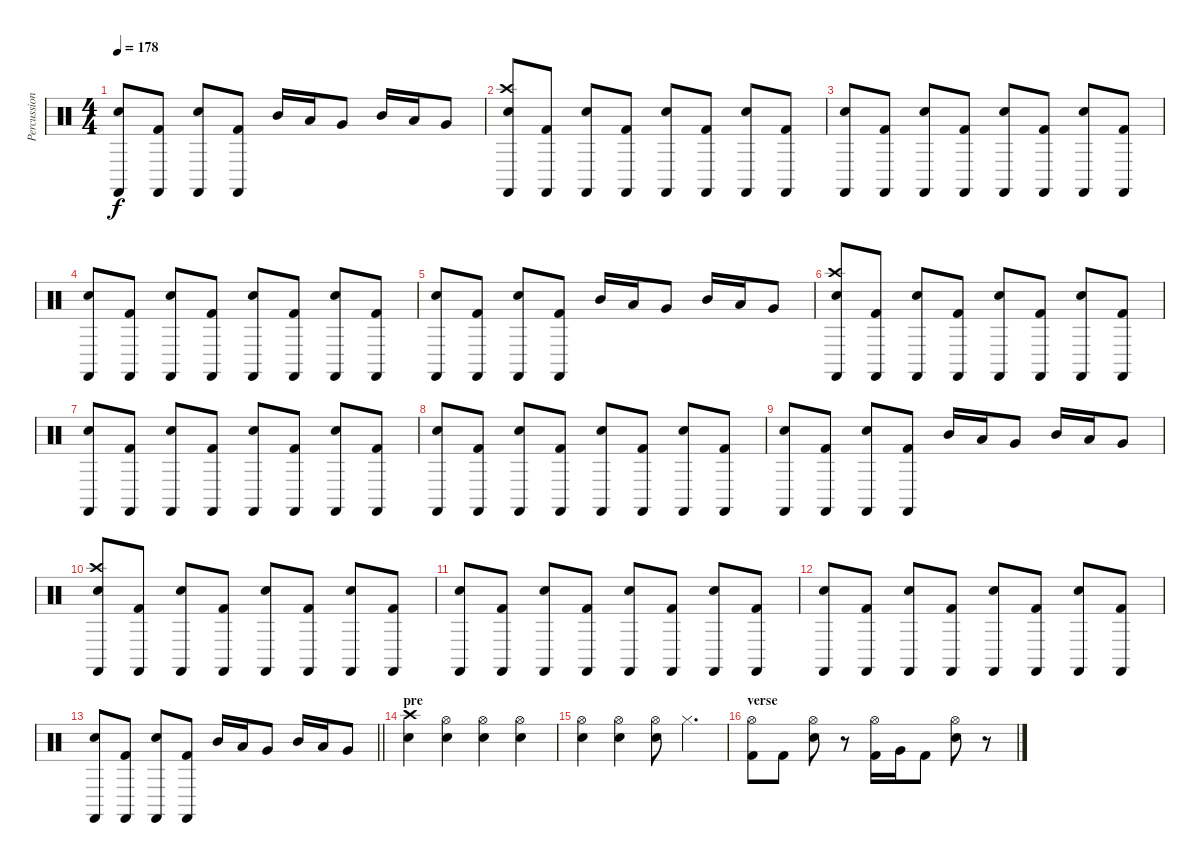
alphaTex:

\track ("Percussion" "Percussion") {instrument percussion}
\staff {score}
\articulation defaults
\ts (4 4)
\tempo 178
\clef neutral
\ks c
("Castanets (hit)" "Electric Snare (hit)").8{dy f} ("Castanets (hit)" "Kick (hit) 2").8 ("Castanets (hit)" "Electric Snare (hit)").8 ("Castanets (hit)" "Kick (hit) 2").8 "Mid Tom (hit)".16 "Low Tom (hit)".16 "Very Low Tom (hit)".8 "Mid Tom (hit)".16 "Low Tom (hit)".16 "Very Low Tom (hit)".8 |
("Crash high (hit)" "Castanets (hit)" "Electric Snare (hit)").8 ("Castanets (hit)" "Kick (hit) 2").8 ("Castanets (hit)" "Electric Snare (hit)").8 ("Castanets (hit)" "Kick (hit) 2").8 ("Castanets (hit)" "Electric Snare (hit)").8 ("Castanets (hit)" "Kick (hit) 2").8 ("Castanets (hit)" "Electric Snare (hit)").8 ("Castanets (hit)" "Kick (hit) 2").8 |
("Castanets (hit)" "Electric Snare (hit)").8 ("Castanets (hit)" "Kick (hit) 2").8 ("Castanets (hit)" "Electric Snare (hit)").8 ("Castanets (hit)" "Kick (hit) 2").8 ("Castanets (hit)" "Electric Snare (hit)").8 ("Castanets (hit)" "Kick (hit) 2").8 ("Castanets (hit)" "Electric Snare (hit)").8 ("Castanets (hit)" "Kick (hit) 2").8 |
("Castanets (hit)" "Electric Snare (hit)").8 ("Castanets (hit)" "Kick (hit) 2").8 ("Castanets (hit)" "Electric Snare (hit)").8 ("Castanets (hit)" "Kick (hit) 2").8 ("Castanets (hit)" "Electric Snare (hit)").8 ("Castanets (hit)" "Kick (hit) 2").8 ("Castanets (hit)" "Electric Snare (hit)").8 ("Castanets (hit)" "Kick (hit) 2").8 |
("Castanets (hit)" "Electric Snare (hit)").8 ("Castanets (hit)" "Kick (hit) 2").8 ("Castanets (hit)" "Electric Snare (hit)").8 ("Castanets (hit)" "Kick (hit) 2").8 "Mid Tom (hit)".16 "Low Tom (hit)".16 "Very Low Tom (hit)".8 "Mid Tom (hit)".16 "Low Tom (hit)".16 "Very Low Tom (hit)".8 |
("Crash high (hit)" "Castanets (hit)" "Electric Snare (hit)").8 ("Castanets (hit)" "Kick (hit) 2").8 ("Castanets (hit)" "Electric Snare (hit)").8 ("Castanets (hit)" "Kick (hit) 2").8 ("Castanets (hit)" "Electric Snare (hit)").8 ("Castanets (hit)" "Kick (hit) 2").8 ("Castanets (hit)" "Electric Snare (hit)").8 ("Castanets (hit)" "Kick (hit) 2").8 |
("Castanets (hit)" "Electric Snare (hit)").8 ("Castanets (hit)" "Kick (hit) 2").8 ("Castanets (hit)" "Electric Snare (hit)").8 ("Castanets (hit)" "Kick (hit) 2").8 ("Castanets (hit)" "Electric Snare (hit)").8 ("Castanets (hit)" "Kick (hit) 2").8 ("Castanets (hit)" "Electric Snare (hit)").8 ("Castanets (hit)" "Kick (hit) 2").8 |
("Castanets (hit)" "Electric Snare (hit)").8 ("Castanets (hit)" "Kick (hit) 2").8 ("Castanets (hit)" "Electric Snare (hit)").8 ("Castanets (hit)" "Kick (hit) 2").8 ("Castanets (hit)" "Electric Snare (hit)").8 ("Castanets (hit)" "Kick (hit) 2").8 ("Castanets (hit)" "Electric Snare (hit)").8 ("Castanets (hit)" "Kick (hit) 2").8 |
("Castanets (hit)" "Electric Snare (hit)").8 ("Castanets (hit)" "Kick (hit) 2").8 ("Castanets (hit)" "Electric Snare (hit)").8 ("Castanets (hit)" "Kick (hit) 2").8 "Mid Tom (hit)".16 "Low Tom (hit)".16 "Very Low Tom (hit)".8 "Mid Tom (hit)".16 "Low Tom (hit)".16 "Very Low Tom (hit)".8 |
("Crash high (hit)" "Castanets (hit)" "Electric Snare (hit)").8 ("Castanets (hit)" "Kick (hit) 2").8 ("Castanets (hit)" "Electric Snare (hit)").8 ("Castanets (hit)" "Kick (hit) 2").8 ("Castanets (hit)" "Electric Snare (hit)").8 ("Castanets (hit)" "Kick (hit) 2").8 ("Castanets (hit)" "Electric Snare (hit)").8 ("Castanets (hit)" "Kick (hit) 2").8 |
("Castanets (hit)" "Electric Snare (hit)").8 ("Castanets (hit)" "Kick (hit) 2").8 ("Castanets (hit)" "Electric Snare (hit)").8 ("Castanets (hit)" "Kick (hit) 2").8 ("Castanets (hit)" "Electric Snare (hit)").8 ("Castanets (hit)" "Kick (hit) 2").8 ("Castanets (hit)" "Electric Snare (hit)").8 ("Castanets (hit)" "Kick (hit) 2").8 |
("Castanets (hit)" "Electric Snare (hit)").8 ("Castanets (hit)" "Kick (hit) 2").8 ("Castanets (hit)" "Electric Snare (hit)").8 ("Castanets (hit)" "Kick (hit) 2").8 ("Castanets (hit)" "Electric Snare (hit)").8 ("Castanets (hit)" "Kick (hit) 2").8 ("Castanets (hit)" "Electric Snare (hit)").8 ("Castanets (hit)" "Kick (hit) 2").8 |
\barLineRight lightlight
("Castanets (hit)" "Electric Snare (hit)").8 ("Castanets (hit)" "Kick (hit) 2").8 ("Castanets (hit)" "Electric Snare (hit)").8 ("Castanets (hit)" "Kick (hit) 2").8 "Mid Tom (hit)".16 "Low Tom (hit)".16 "Very Low Tom (hit)".8 "Mid Tom (hit)".16 "Low Tom (hit)".16 "Very Low Tom (hit)".8 |
\section ("" "pre")
("Crash high (hit)" "Electric Snare (hit)").4 ("Hi-Hat (open)" "Electric Snare (hit)").4 ("Hi-Hat (open)" "Electric Snare (hit)").4 ("Hi-Hat (open)" "Electric Snare (hit)").4 |
("Hi-Hat (open)" "Electric Snare (hit)").4 ("Hi-Hat (open)" "Electric Snare (hit)").4 ("Hi-Hat (open)" "Electric Snare (hit)").8 "Hi-Hat (closed)".4{d} |
\section ("" "verse")
("Hi-Hat (open)" "Kick (hit) 2").8 "Kick (hit) 2".8 ("Hi-Hat (open)" "Electric Snare (hit)").8 r.8 ("Hi-Hat (open)" "Kick (hit) 2").16 "Very Low Tom (hit)".16 "Kick (hit) 2".8 ("Hi-Hat (open)" "Electric Snare (hit)").8 r.8
